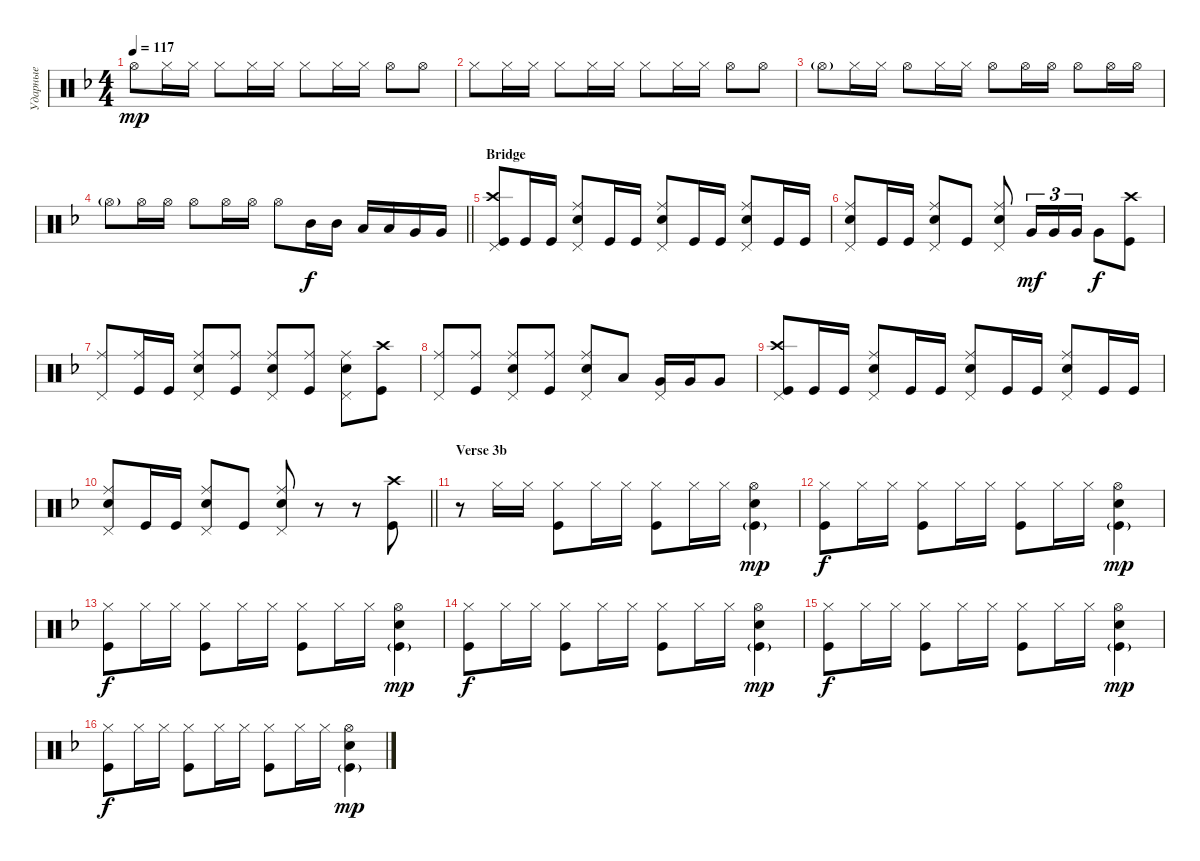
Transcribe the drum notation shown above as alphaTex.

\track ("Ударные" "Ударные") {instrument percussion}
\staff {score}
\articulation defaults
\ts (4 4)
\tempo 117
\clef neutral
\ks dminor "Hi-Hat (open)".8{dy mp} "Hi-Hat (closed)".16 "Hi-Hat (closed)".16 "Hi-Hat (closed)".8 "Hi-Hat (closed)".16 "Hi-Hat (closed)".16 "Hi-Hat (closed)".8 "Hi-Hat (closed)".16 "Hi-Hat (closed)".16 "Hi-Hat (open)".8 "Hi-Hat (open)".8
|
"Hi-Hat (closed)".8 "Hi-Hat (closed)".16 "Hi-Hat (closed)".16 "Hi-Hat (closed)".8 "Hi-Hat (closed)".16 "Hi-Hat (closed)".16 "Hi-Hat (closed)".8 "Hi-Hat (closed)".16 "Hi-Hat (closed)".16 "Hi-Hat (open)".8 "Hi-Hat (open)".8 |
"Hi-Hat (open)"{g}.8 "Hi-Hat (closed)".16 "Hi-Hat (closed)".16 "Hi-Hat (open)".8 "Hi-Hat (closed)".16 "Hi-Hat (closed)".16 "Hi-Hat (open)".8 "Hi-Hat (open)".16 "Hi-Hat (open)".16 "Hi-Hat (open)".8 "Hi-Hat (open)".16 "Hi-Hat (open)".16 |
\barLineRight lightlight "Hi-Hat (open)"{g}.8 "Hi-Hat (open)".16 "Hi-Hat (open)".16 "Hi-Hat (open)".8 "Hi-Hat (open)".16 "Hi-Hat (open)".16 "Hi-Hat (open)".8 "Mid Tom (hit)".16{dy f} "Mid Tom (hit)".16 "Low Tom (hit)".16 "Low Tom (hit)".16 "Very Low Tom (hit)".16 "Very Low Tom (hit)".16
|
\section ("" "Bridge")
("Kick (hit)" "Crash high (hit)" "Pedal Hi-Hat (hit)").8 "Kick (hit)".16 "Kick (hit)".16 ("Snare (hit) 2" "Ride (middle)" "Pedal Hi-Hat (hit)").8 "Kick (hit)".16 "Kick (hit)".16 ("Snare (hit) 2" "Ride (middle)" "Pedal Hi-Hat (hit)").8 "Kick (hit)".16 "Kick (hit)".16 ("Snare (hit) 2" "Ride (middle)" "Pedal Hi-Hat (hit)").8 "Kick (hit)".16 "Kick (hit)".16 |
("Ride (middle)" "Snare (hit) 2" "Pedal Hi-Hat (hit)").8 "Kick (hit)".16 "Kick (hit)".16 ("Snare (hit) 2" "Ride (middle)" "Pedal Hi-Hat (hit)").8 "Kick (hit)".8 ("Snare (hit) 2" "Ride (middle)" "Pedal Hi-Hat (hit)").8 "Very Low Tom (hit)".16{tu (3 2) dy mf} "Very Low Tom (hit)".16{tu (3 2)} "Very Low Tom (hit)".16{tu (3 2)} "Very Low Tom (hit)".8{dy f} ("Kick (hit)" "Crash high (hit)").8 |
("Ride (middle)" "Pedal Hi-Hat (hit)").8 ("Ride (middle)" "Kick (hit)").16 "Kick (hit)".16 ("Ride (middle)" "Snare (hit) 2" "Pedal Hi-Hat (hit)").8 ("Ride (middle)" "Kick (hit)").8 ("Ride (middle)" "Snare (hit) 2" "Pedal Hi-Hat (hit)").8 ("Ride (middle)" "Kick (hit)").8 ("Ride (middle)" "Snare (hit) 2" "Pedal Hi-Hat (hit)").8 ("Kick (hit)" "Crash high (hit)").8 |
("Ride (middle)" "Pedal Hi-Hat (hit)").8 ("Ride (middle)" "Kick (hit)").8 ("Ride (middle)" "Snare (hit) 2" "Pedal Hi-Hat (hit)").8 ("Ride (middle)" "Kick (hit)").8 ("Snare (hit) 2" "Ride (middle)" "Pedal Hi-Hat (hit)").8 "Low Tom (hit)".8 ("Very Low Tom (hit)" "Pedal Hi-Hat (hit)").16 "Very Low Tom (hit)".16 "Very Low Tom (hit)".8 |
("Kick (hit)" "Crash high (hit)" "Pedal Hi-Hat (hit)").8 "Kick (hit)".16 "Kick (hit)".16 ("Snare (hit) 2" "Ride (middle)" "Pedal Hi-Hat (hit)").8 "Kick (hit)".16 "Kick (hit)".16 ("Snare (hit) 2" "Ride (middle)" "Pedal Hi-Hat (hit)").8 "Kick (hit)".16 "Kick (hit)".16 ("Snare (hit) 2" "Ride (middle)" "Pedal Hi-Hat (hit)").8 "Kick (hit)".16 "Kick (hit)".16 |
\barLineRight lightlight
("Ride (middle)" "Snare (hit) 2" "Pedal Hi-Hat (hit)").8 "Kick (hit)".16 "Kick (hit)".16 ("Snare (hit) 2" "Ride (middle)" "Pedal Hi-Hat (hit)").8 "Kick (hit)".8 ("Snare (hit) 2" "Ride (middle)" "Pedal Hi-Hat (hit)").8 r.8 r.8 ("Kick (hit)" "Crash high (hit)").8 |
\section ("" "Verse 3b")
r.8 "Hi-Hat (closed)".16 "Hi-Hat (closed)".16 ("Hi-Hat (closed)" "Kick (hit)").8 "Hi-Hat (closed)".16 "Hi-Hat (closed)".16 ("Hi-Hat (closed)" "Kick (hit)").8 "Hi-Hat (closed)".16 "Hi-Hat (closed)".16 ("Hi-Hat (open)" "Snare (hit) 2" "Kick (hit)"{g}).4{dy mp} |
("Hi-Hat (closed)" "Kick (hit)").8{dy f} "Hi-Hat (closed)".16 "Hi-Hat (closed)".16 ("Hi-Hat (closed)" "Kick (hit)").8 "Hi-Hat (closed)".16 "Hi-Hat (closed)".16 ("Hi-Hat (closed)" "Kick (hit)").8 "Hi-Hat (closed)".16 "Hi-Hat (closed)".16 ("Hi-Hat (open)" "Snare (hit) 2" "Kick (hit)"{g}).4{dy mp} |
("Hi-Hat (closed)" "Kick (hit)").8{dy f} "Hi-Hat (closed)".16 "Hi-Hat (closed)".16 ("Hi-Hat (closed)" "Kick (hit)").8 "Hi-Hat (closed)".16 "Hi-Hat (closed)".16 ("Hi-Hat (closed)" "Kick (hit)").8 "Hi-Hat (closed)".16 "Hi-Hat (closed)".16 ("Hi-Hat (open)" "Snare (hit) 2" "Kick (hit)"{g}).4{dy mp} |
("Hi-Hat (closed)" "Kick (hit)").8{dy f} "Hi-Hat (closed)".16 "Hi-Hat (closed)".16 ("Hi-Hat (closed)" "Kick (hit)").8 "Hi-Hat (closed)".16 "Hi-Hat (closed)".16 ("Hi-Hat (closed)" "Kick (hit)").8 "Hi-Hat (closed)".16 "Hi-Hat (closed)".16 ("Hi-Hat (open)" "Snare (hit) 2" "Kick (hit)"{g}).4{dy mp} |
("Hi-Hat (closed)" "Kick (hit)").8{dy f} "Hi-Hat (closed)".16 "Hi-Hat (closed)".16 ("Hi-Hat (closed)" "Kick (hit)").8 "Hi-Hat (closed)".16 "Hi-Hat (closed)".16 ("Hi-Hat (closed)" "Kick (hit)").8 "Hi-Hat (closed)".16 "Hi-Hat (closed)".16 ("Hi-Hat (open)" "Snare (hit) 2" "Kick (hit)"{g}).4{dy mp} |
("Hi-Hat (closed)" "Kick (hit)").8{dy f} "Hi-Hat (closed)".16 "Hi-Hat (closed)".16 ("Hi-Hat (closed)" "Kick (hit)").8 "Hi-Hat (closed)".16 "Hi-Hat (closed)".16 ("Hi-Hat (closed)" "Kick (hit)").8 "Hi-Hat (closed)".16 "Hi-Hat (closed)".16 ("Hi-Hat (open)" "Snare (hit) 2" "Kick (hit)"{g}).4{dy mp}
